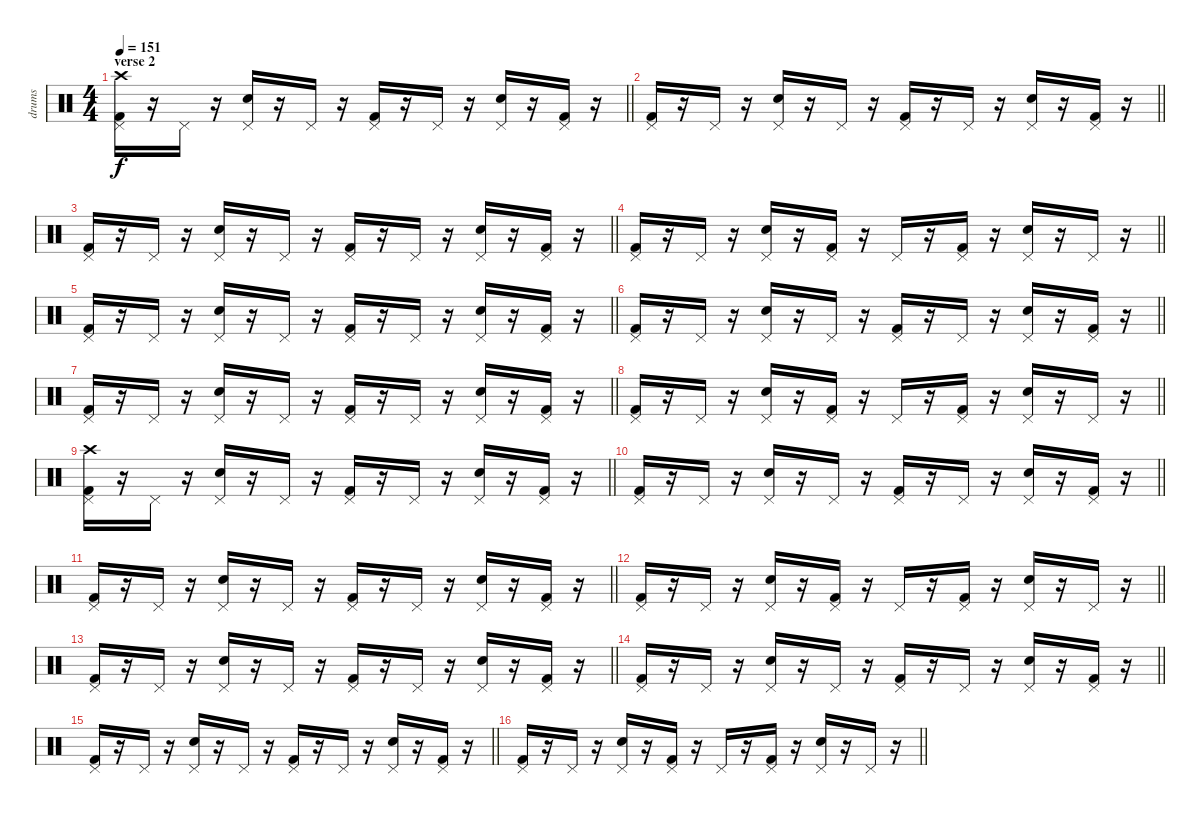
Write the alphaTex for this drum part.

\track ("drums" "drums") {instrument percussion}
\staff {score}
\articulation defaults
\ts (4 4)
\section ("" "verse 2")
\tempo 151
\clef neutral
\barLineRight lightlight
\ks c
("Kick (hit) 2" "Pedal Hi-Hat (hit)" "Crash high (hit)").16{dy f} r.16 "Pedal Hi-Hat (hit)".16 r.16 ("Electric Snare (hit)" "Pedal Hi-Hat (hit)").16 r.16 "Pedal Hi-Hat (hit)".16 r.16 ("Kick (hit) 2" "Pedal Hi-Hat (hit)").16 r.16 "Pedal Hi-Hat (hit)".16 r.16 ("Electric Snare (hit)" "Pedal Hi-Hat (hit)").16 r.16 ("Kick (hit) 2" "Pedal Hi-Hat (hit)").16 r.16 |
\barLineRight lightlight
("Kick (hit) 2" "Pedal Hi-Hat (hit)").16 r.16 "Pedal Hi-Hat (hit)".16 r.16 ("Electric Snare (hit)" "Pedal Hi-Hat (hit)").16 r.16 "Pedal Hi-Hat (hit)".16 r.16 ("Kick (hit) 2" "Pedal Hi-Hat (hit)").16 r.16 "Pedal Hi-Hat (hit)".16 r.16 ("Electric Snare (hit)" "Pedal Hi-Hat (hit)").16 r.16 ("Kick (hit) 2" "Pedal Hi-Hat (hit)").16 r.16 |
\barLineRight lightlight
("Kick (hit) 2" "Pedal Hi-Hat (hit)").16 r.16 "Pedal Hi-Hat (hit)".16 r.16 ("Electric Snare (hit)" "Pedal Hi-Hat (hit)").16 r.16 "Pedal Hi-Hat (hit)".16 r.16 ("Kick (hit) 2" "Pedal Hi-Hat (hit)").16 r.16 "Pedal Hi-Hat (hit)".16 r.16 ("Electric Snare (hit)" "Pedal Hi-Hat (hit)").16 r.16 ("Kick (hit) 2" "Pedal Hi-Hat (hit)").16 r.16 |
\barLineRight lightlight
("Kick (hit) 2" "Pedal Hi-Hat (hit)").16 r.16 "Pedal Hi-Hat (hit)".16 r.16 ("Electric Snare (hit)" "Pedal Hi-Hat (hit)").16 r.16 ("Kick (hit) 2" "Pedal Hi-Hat (hit)").16 r.16 "Pedal Hi-Hat (hit)".16 r.16 ("Kick (hit) 2" "Pedal Hi-Hat (hit)").16 r.16 ("Electric Snare (hit)" "Pedal Hi-Hat (hit)").16 r.16 "Pedal Hi-Hat (hit)".16 r.16 |
\barLineRight lightlight
("Kick (hit) 2" "Pedal Hi-Hat (hit)").16 r.16 "Pedal Hi-Hat (hit)".16 r.16 ("Electric Snare (hit)" "Pedal Hi-Hat (hit)").16 r.16 "Pedal Hi-Hat (hit)".16 r.16 ("Kick (hit) 2" "Pedal Hi-Hat (hit)").16 r.16 "Pedal Hi-Hat (hit)".16 r.16 ("Electric Snare (hit)" "Pedal Hi-Hat (hit)").16 r.16 ("Kick (hit) 2" "Pedal Hi-Hat (hit)").16 r.16 |
\barLineRight lightlight
("Kick (hit) 2" "Pedal Hi-Hat (hit)").16 r.16 "Pedal Hi-Hat (hit)".16 r.16 ("Electric Snare (hit)" "Pedal Hi-Hat (hit)").16 r.16 "Pedal Hi-Hat (hit)".16 r.16 ("Kick (hit) 2" "Pedal Hi-Hat (hit)").16 r.16 "Pedal Hi-Hat (hit)".16 r.16 ("Electric Snare (hit)" "Pedal Hi-Hat (hit)").16 r.16 ("Kick (hit) 2" "Pedal Hi-Hat (hit)").16 r.16 |
\barLineRight lightlight
("Kick (hit) 2" "Pedal Hi-Hat (hit)").16 r.16 "Pedal Hi-Hat (hit)".16 r.16 ("Electric Snare (hit)" "Pedal Hi-Hat (hit)").16 r.16 "Pedal Hi-Hat (hit)".16 r.16 ("Kick (hit) 2" "Pedal Hi-Hat (hit)").16 r.16 "Pedal Hi-Hat (hit)".16 r.16 ("Electric Snare (hit)" "Pedal Hi-Hat (hit)").16 r.16 ("Kick (hit) 2" "Pedal Hi-Hat (hit)").16 r.16 |
\barLineRight lightlight
("Kick (hit) 2" "Pedal Hi-Hat (hit)").16 r.16 "Pedal Hi-Hat (hit)".16 r.16 ("Electric Snare (hit)" "Pedal Hi-Hat (hit)").16 r.16 ("Kick (hit) 2" "Pedal Hi-Hat (hit)").16 r.16 "Pedal Hi-Hat (hit)".16 r.16 ("Kick (hit) 2" "Pedal Hi-Hat (hit)").16 r.16 ("Electric Snare (hit)" "Pedal Hi-Hat (hit)").16 r.16 "Pedal Hi-Hat (hit)".16 r.16 |
\barLineRight lightlight
("Kick (hit) 2" "Pedal Hi-Hat (hit)" "Crash high (hit)").16 r.16 "Pedal Hi-Hat (hit)".16 r.16 ("Electric Snare (hit)" "Pedal Hi-Hat (hit)").16 r.16 "Pedal Hi-Hat (hit)".16 r.16 ("Kick (hit) 2" "Pedal Hi-Hat (hit)").16 r.16 "Pedal Hi-Hat (hit)".16 r.16 ("Electric Snare (hit)" "Pedal Hi-Hat (hit)").16 r.16 ("Kick (hit) 2" "Pedal Hi-Hat (hit)").16 r.16 |
\barLineRight lightlight
("Kick (hit) 2" "Pedal Hi-Hat (hit)").16 r.16 "Pedal Hi-Hat (hit)".16 r.16 ("Electric Snare (hit)" "Pedal Hi-Hat (hit)").16 r.16 "Pedal Hi-Hat (hit)".16 r.16 ("Kick (hit) 2" "Pedal Hi-Hat (hit)").16 r.16 "Pedal Hi-Hat (hit)".16 r.16 ("Electric Snare (hit)" "Pedal Hi-Hat (hit)").16 r.16 ("Kick (hit) 2" "Pedal Hi-Hat (hit)").16 r.16 |
\barLineRight lightlight
("Kick (hit) 2" "Pedal Hi-Hat (hit)").16 r.16 "Pedal Hi-Hat (hit)".16 r.16 ("Electric Snare (hit)" "Pedal Hi-Hat (hit)").16 r.16 "Pedal Hi-Hat (hit)".16 r.16 ("Kick (hit) 2" "Pedal Hi-Hat (hit)").16 r.16 "Pedal Hi-Hat (hit)".16 r.16 ("Electric Snare (hit)" "Pedal Hi-Hat (hit)").16 r.16 ("Kick (hit) 2" "Pedal Hi-Hat (hit)").16 r.16 |
\barLineRight lightlight
("Kick (hit) 2" "Pedal Hi-Hat (hit)").16 r.16 "Pedal Hi-Hat (hit)".16 r.16 ("Electric Snare (hit)" "Pedal Hi-Hat (hit)").16 r.16 ("Kick (hit) 2" "Pedal Hi-Hat (hit)").16 r.16 "Pedal Hi-Hat (hit)".16 r.16 ("Kick (hit) 2" "Pedal Hi-Hat (hit)").16 r.16 ("Electric Snare (hit)" "Pedal Hi-Hat (hit)").16 r.16 "Pedal Hi-Hat (hit)".16 r.16 |
\barLineRight lightlight
("Kick (hit) 2" "Pedal Hi-Hat (hit)").16 r.16 "Pedal Hi-Hat (hit)".16 r.16 ("Electric Snare (hit)" "Pedal Hi-Hat (hit)").16 r.16 "Pedal Hi-Hat (hit)".16 r.16 ("Kick (hit) 2" "Pedal Hi-Hat (hit)").16 r.16 "Pedal Hi-Hat (hit)".16 r.16 ("Electric Snare (hit)" "Pedal Hi-Hat (hit)").16 r.16 ("Kick (hit) 2" "Pedal Hi-Hat (hit)").16 r.16 |
\barLineRight lightlight
("Kick (hit) 2" "Pedal Hi-Hat (hit)").16 r.16 "Pedal Hi-Hat (hit)".16 r.16 ("Electric Snare (hit)" "Pedal Hi-Hat (hit)").16 r.16 "Pedal Hi-Hat (hit)".16 r.16 ("Kick (hit) 2" "Pedal Hi-Hat (hit)").16 r.16 "Pedal Hi-Hat (hit)".16 r.16 ("Electric Snare (hit)" "Pedal Hi-Hat (hit)").16 r.16 ("Kick (hit) 2" "Pedal Hi-Hat (hit)").16 r.16 |
\barLineRight lightlight
("Kick (hit) 2" "Pedal Hi-Hat (hit)").16 r.16 "Pedal Hi-Hat (hit)".16 r.16 ("Electric Snare (hit)" "Pedal Hi-Hat (hit)").16 r.16 "Pedal Hi-Hat (hit)".16 r.16 ("Kick (hit) 2" "Pedal Hi-Hat (hit)").16 r.16 "Pedal Hi-Hat (hit)".16 r.16 ("Electric Snare (hit)" "Pedal Hi-Hat (hit)").16 r.16 ("Kick (hit) 2" "Pedal Hi-Hat (hit)").16 r.16 |
\barLineRight lightlight
("Kick (hit) 2" "Pedal Hi-Hat (hit)").16 r.16 "Pedal Hi-Hat (hit)".16 r.16 ("Electric Snare (hit)" "Pedal Hi-Hat (hit)").16 r.16 ("Kick (hit) 2" "Pedal Hi-Hat (hit)").16 r.16 "Pedal Hi-Hat (hit)".16 r.16 ("Kick (hit) 2" "Pedal Hi-Hat (hit)").16 r.16 ("Electric Snare (hit)" "Pedal Hi-Hat (hit)").16 r.16 "Pedal Hi-Hat (hit)".16 r.16
